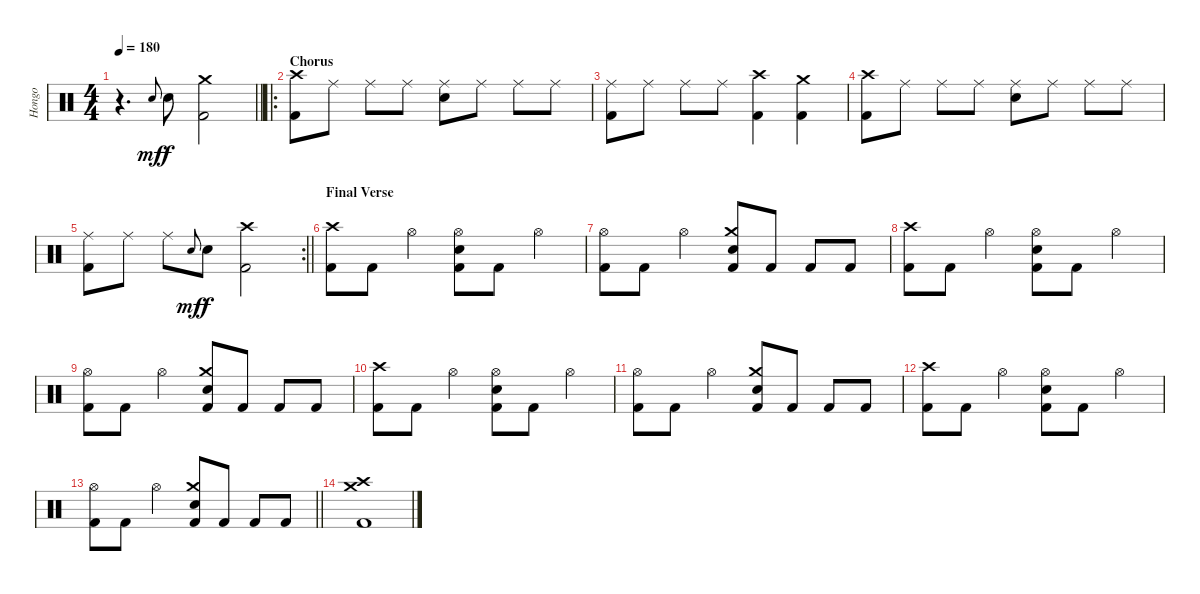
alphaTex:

\track ("Hongo" "Hongo") {instrument percussion}
\staff {score}
\articulation defaults
\ts (4 4)
\tempo 180
\clef neutral
\barLineRight lightlight
\ks c
r.4{d dy f} "Electric Snare (hit)"{h}.8{gr onbeat dy mf} "Electric Snare (hit)".8{dy f} ("Crash medium (hit)" "Kick (hit) 2").2 |
\ro
\section ("" "Chorus")
("Crash high (hit)" "Kick (hit) 2").8 "Ride (middle)".8 "Ride (middle)".8 "Ride (middle)".8 ("Ride (middle)" "Electric Snare (hit)").8 "Ride (middle)".8 "Ride (middle)".8 "Ride (middle)".8 |
("Ride (middle)" "Kick (hit) 2").8 "Ride (middle)".8 "Ride (middle)".8 "Ride (middle)".8 ("Crash high (hit)" "Kick (hit) 2").4 ("Crash medium (hit)" "Kick (hit) 2").4 |
("Crash high (hit)" "Kick (hit) 2").8 "Ride (middle)".8 "Ride (middle)".8 "Ride (middle)".8 ("Ride (middle)" "Electric Snare (hit)").8 "Ride (middle)".8 "Ride (middle)".8 "Ride (middle)".8 |
\rc 2
\barLineRight lightlight
("Ride (middle)" "Kick (hit) 2").8 "Ride (middle)".8 "Ride (middle)".8 "Electric Snare (hit)"{h}.8{gr onbeat dy mf} "Electric Snare (hit)".8{dy f} ("Crash high (hit)" "Kick (hit) 2").2 |
\section ("" "Final Verse")
("Crash high (hit)" "Kick (hit) 2").8 "Kick (hit) 2".8 "Hi-Hat (open)".4 ("Hi-Hat (open)" "Electric Snare (hit)" "Kick (hit) 2").8 "Kick (hit) 2".8 "Hi-Hat (open)".4 |
("Hi-Hat (open)" "Kick (hit) 2").8 "Kick (hit) 2".8 "Hi-Hat (open)".4 ("Crash medium (hit)" "Electric Snare (hit)" "Kick (hit) 2").8 "Kick (hit) 2".8 "Kick (hit) 2".8 "Kick (hit) 2".8 |
("Crash high (hit)" "Kick (hit) 2").8 "Kick (hit) 2".8 "Hi-Hat (open)".4 ("Hi-Hat (open)" "Electric Snare (hit)" "Kick (hit) 2").8 "Kick (hit) 2".8 "Hi-Hat (open)".4 |
("Hi-Hat (open)" "Kick (hit) 2").8 "Kick (hit) 2".8 "Hi-Hat (open)".4 ("Crash medium (hit)" "Electric Snare (hit)" "Kick (hit) 2").8 "Kick (hit) 2".8 "Kick (hit) 2".8 "Kick (hit) 2".8 |
("Crash high (hit)" "Kick (hit) 2").8 "Kick (hit) 2".8 "Hi-Hat (open)".4 ("Hi-Hat (open)" "Electric Snare (hit)" "Kick (hit) 2").8 "Kick (hit) 2".8 "Hi-Hat (open)".4 |
("Hi-Hat (open)" "Kick (hit) 2").8 "Kick (hit) 2".8 "Hi-Hat (open)".4 ("Crash medium (hit)" "Electric Snare (hit)" "Kick (hit) 2").8 "Kick (hit) 2".8 "Kick (hit) 2".8 "Kick (hit) 2".8 |
("Crash high (hit)" "Kick (hit) 2").8 "Kick (hit) 2".8 "Hi-Hat (open)".4 ("Hi-Hat (open)" "Electric Snare (hit)" "Kick (hit) 2").8 "Kick (hit) 2".8 "Hi-Hat (open)".4 |
\barLineRight lightlight
("Hi-Hat (open)" "Kick (hit) 2").8 "Kick (hit) 2".8 "Hi-Hat (open)".4 ("Crash medium (hit)" "Electric Snare (hit)" "Kick (hit) 2").8 "Kick (hit) 2".8 "Kick (hit) 2".8 "Kick (hit) 2".8 |
("Crash high (hit)" "Crash medium (hit)" "Kick (hit) 2").1
